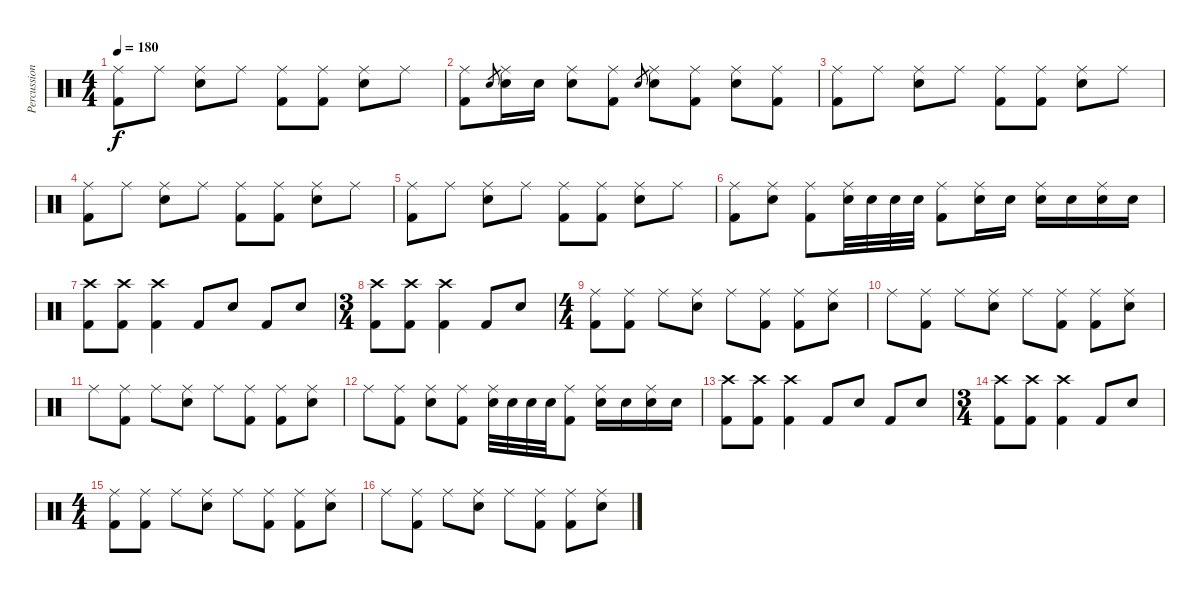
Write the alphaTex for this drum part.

\track ("Percussion" "Percussion") {instrument percussion}
\staff {score}
\articulation defaults
\ts (4 4)
\tempo 180
\clef neutral
\ks c
("Ride (middle)" "Kick (hit) 2").8{dy f} "Ride (middle)".8 ("Ride (middle)" "Electric Snare (hit)").8 "Ride (middle)".8 ("Ride (middle)" "Kick (hit) 2").8 ("Ride (middle)" "Kick (hit) 2").8 ("Ride (middle)" "Electric Snare (hit)").8 "Ride (middle)".8 |
("Ride (middle)" "Kick (hit) 2").8 "Electric Snare (hit)".8{gr} ("Ride (middle)" "Electric Snare (hit)").16 "Electric Snare (hit)".16 ("Ride (middle)" "Electric Snare (hit)").8 ("Ride (middle)" "Kick (hit) 2").8 "Electric Snare (hit)".8{gr} ("Ride (middle)" "Electric Snare (hit)").8 ("Ride (middle)" "Kick (hit) 2").8 ("Ride (middle)" "Electric Snare (hit)").8 ("Ride (middle)" "Kick (hit) 2").8 |
("Ride (middle)" "Kick (hit) 2").8 "Ride (middle)".8 ("Ride (middle)" "Electric Snare (hit)").8 "Ride (middle)".8 ("Ride (middle)" "Kick (hit) 2").8 ("Ride (middle)" "Kick (hit) 2").8 ("Ride (middle)" "Electric Snare (hit)").8 "Ride (middle)".8 |
("Ride (middle)" "Kick (hit) 2").8 "Ride (middle)".8 ("Ride (middle)" "Electric Snare (hit)").8 "Ride (middle)".8 ("Ride (middle)" "Kick (hit) 2").8 ("Ride (middle)" "Kick (hit) 2").8 ("Ride (middle)" "Electric Snare (hit)").8 "Ride (middle)".8 |
("Ride (middle)" "Kick (hit) 2").8 "Ride (middle)".8 ("Ride (middle)" "Electric Snare (hit)").8 "Ride (middle)".8 ("Ride (middle)" "Kick (hit) 2").8 ("Ride (middle)" "Kick (hit) 2").8 ("Ride (middle)" "Electric Snare (hit)").8 "Ride (middle)".8 |
("Ride (middle)" "Kick (hit) 2").8 ("Ride (middle)" "Electric Snare (hit)").8 ("Ride (middle)" "Kick (hit) 2").8 ("Ride (middle)" "Electric Snare (hit)").32 "Electric Snare (hit)".32 "Electric Snare (hit)".32 "Electric Snare (hit)".32 ("Ride (middle)" "Kick (hit) 2").8 ("Ride (middle)" "Electric Snare (hit)").16 "Electric Snare (hit)".16 ("Ride (middle)" "Electric Snare (hit)").16 "Electric Snare (hit)".16 ("Ride (middle)" "Electric Snare (hit)").16 "Electric Snare (hit)".16 |
("Crash high (hit)" "Kick (hit) 2").8 ("Crash high (hit)" "Kick (hit) 2").8 ("Crash high (hit)" "Kick (hit) 2").4 "Kick (hit) 2".8 "Electric Snare (hit)".8 "Kick (hit) 2".8 "Electric Snare (hit)".8 |
\ts (3 4)
("Crash high (hit)" "Kick (hit) 2").8 ("Crash high (hit)" "Kick (hit) 2").8 ("Crash high (hit)" "Kick (hit) 2").4 "Kick (hit) 2".8 "Electric Snare (hit)".8 |
\ts (4 4)
("Ride (middle)" "Kick (hit) 2").8 ("Ride (middle)" "Kick (hit) 2").8 "Ride (middle)".8 ("Ride (middle)" "Electric Snare (hit)").8 "Ride (middle)".8 ("Ride (middle)" "Kick (hit) 2").8 ("Ride (middle)" "Kick (hit) 2").8 ("Ride (middle)" "Electric Snare (hit)").8 |
"Ride (middle)".8 ("Ride (middle)" "Kick (hit) 2").8 "Ride (middle)".8 ("Ride (middle)" "Electric Snare (hit)").8 "Ride (middle)".8 ("Ride (middle)" "Kick (hit) 2").8 ("Ride (middle)" "Kick (hit) 2").8 ("Ride (middle)" "Electric Snare (hit)").8 |
"Ride (middle)".8 ("Ride (middle)" "Kick (hit) 2").8 "Ride (middle)".8 ("Ride (middle)" "Electric Snare (hit)").8 "Ride (middle)".8 ("Ride (middle)" "Kick (hit) 2").8 ("Ride (middle)" "Kick (hit) 2").8 ("Ride (middle)" "Electric Snare (hit)").8 |
"Ride (middle)".8 ("Ride (middle)" "Kick (hit) 2").8 ("Ride (middle)" "Electric Snare (hit)").8 ("Ride (middle)" "Kick (hit) 2").8 ("Ride (middle)" "Electric Snare (hit)").32 "Electric Snare (hit)".32 "Electric Snare (hit)".32 "Electric Snare (hit)".32 ("Ride (middle)" "Kick (hit) 2").8 ("Ride (middle)" "Electric Snare (hit)").16 "Electric Snare (hit)".16 ("Ride (middle)" "Electric Snare (hit)").16 "Electric Snare (hit)".16 |
("Crash high (hit)" "Kick (hit) 2").8 ("Crash high (hit)" "Kick (hit) 2").8 ("Crash high (hit)" "Kick (hit) 2").4 "Kick (hit) 2".8 "Electric Snare (hit)".8 "Kick (hit) 2".8 "Electric Snare (hit)".8 |
\ts (3 4)
("Crash high (hit)" "Kick (hit) 2").8 ("Crash high (hit)" "Kick (hit) 2").8 ("Crash high (hit)" "Kick (hit) 2").4 "Kick (hit) 2".8 "Electric Snare (hit)".8 |
\ts (4 4)
("Ride (middle)" "Kick (hit) 2").8 ("Ride (middle)" "Kick (hit) 2").8 "Ride (middle)".8 ("Ride (middle)" "Electric Snare (hit)").8 "Ride (middle)".8 ("Ride (middle)" "Kick (hit) 2").8 ("Ride (middle)" "Kick (hit) 2").8 ("Ride (middle)" "Electric Snare (hit)").8 |
"Ride (middle)".8 ("Ride (middle)" "Kick (hit) 2").8 "Ride (middle)".8 ("Ride (middle)" "Electric Snare (hit)").8 "Ride (middle)".8 ("Ride (middle)" "Kick (hit) 2").8 ("Ride (middle)" "Kick (hit) 2").8 ("Ride (middle)" "Electric Snare (hit)").8
